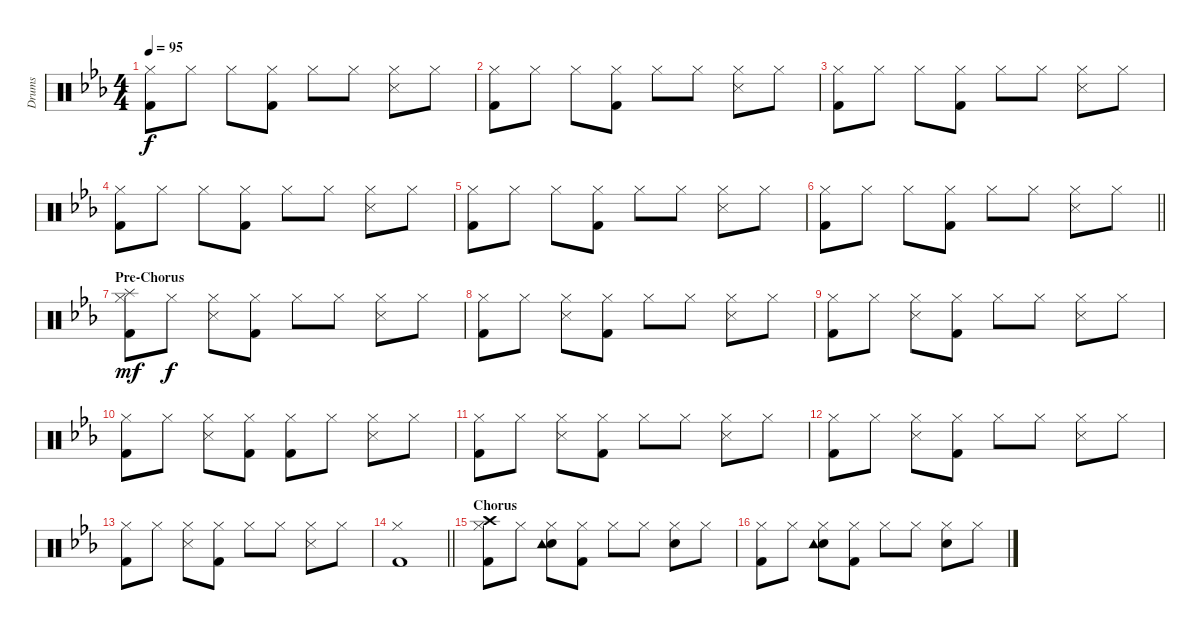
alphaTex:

\track ("Drums" "Drums") {instrument percussion}
\staff {score}
\articulation defaults
\ts (4 4)
\tempo 95
\clef neutral
\ks eb
("Hi-Hat (closed)" "Kick (hit) 2").8{dy f} "Hi-Hat (closed)".8 "Hi-Hat (closed)".8 ("Hi-Hat (closed)" "Kick (hit) 2").8 "Hi-Hat (closed)".8 "Hi-Hat (closed)".8 ("Hi-Hat (closed)" "Snare (side stick) 3").8 "Hi-Hat (closed)".8 |
("Hi-Hat (closed)" "Kick (hit) 2").8 "Hi-Hat (closed)".8 "Hi-Hat (closed)".8 ("Hi-Hat (closed)" "Kick (hit) 2").8 "Hi-Hat (closed)".8 "Hi-Hat (closed)".8 ("Hi-Hat (closed)" "Snare (side stick) 3").8 "Hi-Hat (closed)".8 |
("Hi-Hat (closed)" "Kick (hit) 2").8 "Hi-Hat (closed)".8 "Hi-Hat (closed)".8 ("Hi-Hat (closed)" "Kick (hit) 2").8 "Hi-Hat (closed)".8 "Hi-Hat (closed)".8 ("Hi-Hat (closed)" "Snare (side stick) 3").8 "Hi-Hat (closed)".8 |
("Hi-Hat (closed)" "Kick (hit) 2").8 "Hi-Hat (closed)".8 "Hi-Hat (closed)".8 ("Hi-Hat (closed)" "Kick (hit) 2").8 "Hi-Hat (closed)".8 "Hi-Hat (closed)".8 ("Hi-Hat (closed)" "Snare (side stick) 3").8 "Hi-Hat (closed)".8 |
("Hi-Hat (closed)" "Kick (hit) 2").8 "Hi-Hat (closed)".8 "Hi-Hat (closed)".8 ("Hi-Hat (closed)" "Kick (hit) 2").8 "Hi-Hat (closed)".8 "Hi-Hat (closed)".8 ("Hi-Hat (closed)" "Snare (side stick) 3").8 "Hi-Hat (closed)".8 |
\barLineRight lightlight
("Hi-Hat (closed)" "Kick (hit) 2").8 "Hi-Hat (closed)".8 "Hi-Hat (closed)".8 ("Hi-Hat (closed)" "Kick (hit) 2").8 "Hi-Hat (closed)".8 "Hi-Hat (closed)".8 ("Hi-Hat (closed)" "Snare (side stick) 3").8 "Hi-Hat (closed)".8 |
\section ("" "Pre-Chorus")
("Hi-Hat (closed)" "Splash (hit)" "Kick (hit) 2").8{dy mf} "Hi-Hat (closed)".8{dy f} ("Hi-Hat (closed)" "Snare (side stick) 3").8 ("Hi-Hat (closed)" "Kick (hit) 2").8 "Hi-Hat (closed)".8 "Hi-Hat (closed)".8 ("Hi-Hat (closed)" "Snare (side stick) 3").8 "Hi-Hat (closed)".8 |
("Hi-Hat (closed)" "Kick (hit) 2").8 "Hi-Hat (closed)".8 ("Hi-Hat (closed)" "Snare (side stick) 3").8 ("Hi-Hat (closed)" "Kick (hit) 2").8 "Hi-Hat (closed)".8 "Hi-Hat (closed)".8 ("Hi-Hat (closed)" "Snare (side stick) 3").8 "Hi-Hat (closed)".8 |
("Hi-Hat (closed)" "Kick (hit) 2").8 "Hi-Hat (closed)".8 ("Hi-Hat (closed)" "Snare (side stick) 3").8 ("Hi-Hat (closed)" "Kick (hit) 2").8 "Hi-Hat (closed)".8 "Hi-Hat (closed)".8 ("Hi-Hat (closed)" "Snare (side stick) 3").8 "Hi-Hat (closed)".8 |
("Hi-Hat (closed)" "Kick (hit) 2").8 "Hi-Hat (closed)".8 ("Hi-Hat (closed)" "Snare (side stick) 3").8 ("Hi-Hat (closed)" "Kick (hit) 2").8 ("Hi-Hat (closed)" "Kick (hit) 2").8 "Hi-Hat (closed)".8 ("Hi-Hat (closed)" "Snare (side stick) 3").8 "Hi-Hat (closed)".8 |
("Hi-Hat (closed)" "Kick (hit) 2").8 "Hi-Hat (closed)".8 ("Hi-Hat (closed)" "Snare (side stick) 3").8 ("Hi-Hat (closed)" "Kick (hit) 2").8 "Hi-Hat (closed)".8 "Hi-Hat (closed)".8 ("Hi-Hat (closed)" "Snare (side stick) 3").8 "Hi-Hat (closed)".8 |
("Hi-Hat (closed)" "Kick (hit) 2").8 "Hi-Hat (closed)".8 ("Hi-Hat (closed)" "Snare (side stick) 3").8 ("Hi-Hat (closed)" "Kick (hit) 2").8 "Hi-Hat (closed)".8 "Hi-Hat (closed)".8 ("Hi-Hat (closed)" "Snare (side stick) 3").8 "Hi-Hat (closed)".8 |
("Hi-Hat (closed)" "Kick (hit) 2").8 "Hi-Hat (closed)".8 ("Hi-Hat (closed)" "Snare (side stick) 3").8 ("Hi-Hat (closed)" "Kick (hit) 2").8 "Hi-Hat (closed)".8 "Hi-Hat (closed)".8 ("Hi-Hat (closed)" "Snare (side stick) 3").8 "Hi-Hat (closed)".8 |
\barLineRight lightlight
("Hi-Hat (closed)" "Kick (hit) 2").1 |
\section ("" "Chorus")
("Hi-Hat (closed)" "Crash high (hit)" "Kick (hit) 2").8 "Hi-Hat (closed)".8 ("Hi-Hat (closed)" "Snare (hit) 2" "Tambourine (hit)").8 ("Hi-Hat (closed)" "Kick (hit) 2").8 "Hi-Hat (closed)".8 "Hi-Hat (closed)".8 ("Hi-Hat (closed)" "Snare (hit) 2").8 "Hi-Hat (closed)".8 |
("Hi-Hat (closed)" "Kick (hit) 2").8 "Hi-Hat (closed)".8 ("Hi-Hat (closed)" "Snare (hit) 2" "Tambourine (hit)").8 ("Hi-Hat (closed)" "Kick (hit) 2").8 "Hi-Hat (closed)".8 "Hi-Hat (closed)".8 ("Hi-Hat (closed)" "Snare (hit) 2").8 "Hi-Hat (closed)".8
